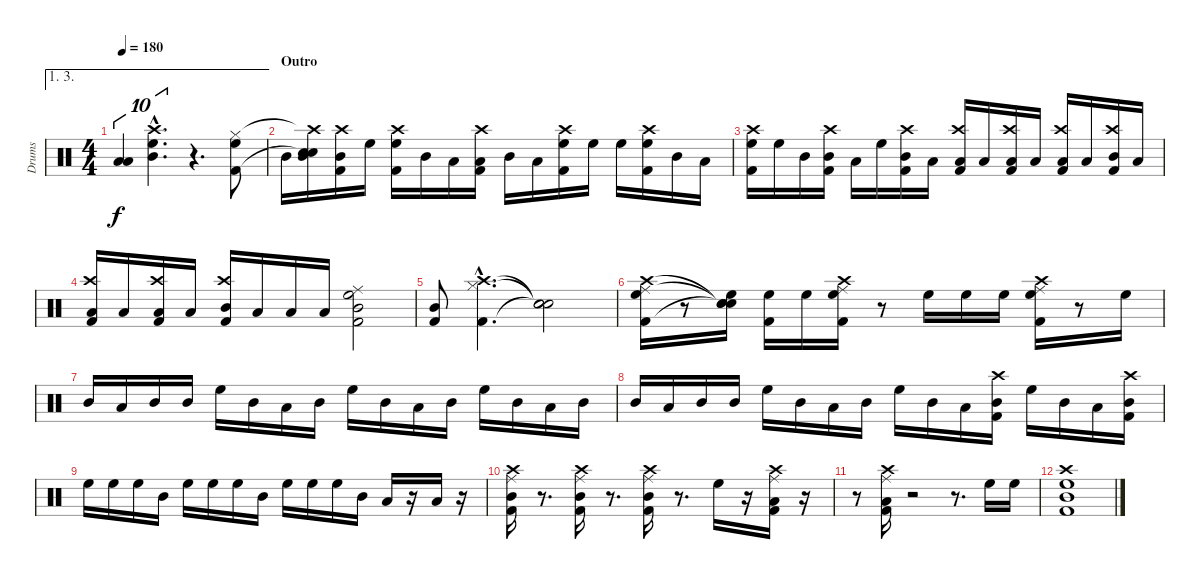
\track ("Drums" "Drums") {instrument percussion}
\staff {score}
\articulation defaults
\ae (1 3)
\ts (4 4)
\tempo 180
\clef neutral
\ks c
("Low Tom (hit)" "Low Floor Tom (hit)").4{tu (10 8) dy f} ("High Floor Tom (hit)"{hac} "Mid Tom (hit)"{hac} "Crash high (hit)"{hac}).4{d tu (10 8)} r.4{d} ("High Floor Tom (hit)" "Hi-Hat (closed)" "Kick (hit) 2").8 |
\section ("" "Outro")
"Mid Tom (hit)".16 ("Mid Tom (hit)" "Crash high (hit)"{t} "Snare (hit)"{t} "Snare (hit)"{t}).16 ("Mid Tom (hit)" "Crash high (hit)" "Kick (hit) 2").16 "High Floor Tom (hit)".16 ("High Floor Tom (hit)" "Crash high (hit)" "Kick (hit) 2").16 "Mid Tom (hit)".16 "Low Tom (hit)".16 ("Low Floor Tom (hit)" "Crash high (hit)" "Kick (hit) 2").16 "Mid Tom (hit)".16 "Low Floor Tom (hit)".16 ("High Floor Tom (hit)" "Crash high (hit)" "Kick (hit) 2").16 "High Floor Tom (hit)".16 "High Floor Tom (hit)".16 ("High Floor Tom (hit)" "Crash high (hit)" "Kick (hit) 2").16 "Mid Tom (hit)".16 "Low Tom (hit)".16 |
("High Floor Tom (hit)" "Crash high (hit)" "Kick (hit) 2").16 "High Floor Tom (hit)".16 "Mid Tom (hit)".16 ("Mid Tom (hit)" "Crash high (hit)" "Kick (hit) 2").16 "Low Tom (hit)".16 "High Floor Tom (hit)".16 ("Mid Tom (hit)" "Crash high (hit)" "Kick (hit) 2").16 "Low Tom (hit)".16 ("Low Floor Tom (hit)" "Crash high (hit)" "Kick (hit) 2").16 "Low Tom (hit)".16 ("Low Floor Tom (hit)" "Crash high (hit)" "Kick (hit) 2").16 "Low Floor Tom (hit)".16 ("Low Floor Tom (hit)" "Crash high (hit)" "Kick (hit) 2").16 "Low Floor Tom (hit)".16 ("Mid Tom (hit)" "Crash high (hit)" "Kick (hit) 2").16 "Low Tom (hit)".16 |
("Low Floor Tom (hit)" "Crash high (hit)" "Kick (hit) 2").16 "Low Floor Tom (hit)".16 ("Low Floor Tom (hit)" "Crash high (hit)" "Kick (hit) 2").16 "Low Floor Tom (hit)".16 ("Mid Tom (hit)" "Crash high (hit)" "Kick (hit) 2").16 "Low Tom (hit)".16 "Low Floor Tom (hit)".16 "Low Floor Tom (hit)".16 ("High Floor Tom (hit)" "Mid Tom (hit)" "Ride (middle)" "Kick (hit) 2").2 |
("Mid Tom (hit)" "Kick (hit) 2").8 ("Crash high (hit)"{hac} "Kick (hit) 2"{hac} "Hi-Hat (closed)"{hac}).4{d} ("Snare (hit)"{t} "Snare (hit)"{t} "Snare (hit)"{t}).2 |
("Ride (middle)" "Crash high (hit)" "High Floor Tom (hit)" "Kick (hit) 2").16 r.8 ("Snare (hit)"{t} "Snare (hit)"{t} "High Floor Tom (hit)" "Snare (hit)"{t}).16 ("High Floor Tom (hit)" "Kick (hit) 2").16 "High Floor Tom (hit)".16 ("Ride (middle)" "Crash high (hit)" "High Floor Tom (hit)" "Kick (hit) 2").16 r.8 "High Floor Tom (hit)".16 "High Floor Tom (hit)".16 "High Floor Tom (hit)".16 ("Ride (middle)" "Crash high (hit)" "High Floor Tom (hit)" "Kick (hit) 2").16 r.8 "High Floor Tom (hit)".16 |
"Mid Tom (hit)".16 "Low Tom (hit)".16 "Mid Tom (hit)".16 "Mid Tom (hit)".16 "High Floor Tom (hit)".16 "Mid Tom (hit)".16 "Low Tom (hit)".16 "Mid Tom (hit)".16 "High Floor Tom (hit)".16 "Mid Tom (hit)".16 "Low Tom (hit)".16 "Mid Tom (hit)".16 "High Floor Tom (hit)".16 "Mid Tom (hit)".16 "Low Tom (hit)".16 "Mid Tom (hit)".16 |
"Mid Tom (hit)".16 "Low Tom (hit)".16 "Mid Tom (hit)".16 "Mid Tom (hit)".16 "High Floor Tom (hit)".16 "Mid Tom (hit)".16 "Low Tom (hit)".16 "Mid Tom (hit)".16 "High Floor Tom (hit)".16 "Mid Tom (hit)".16 "Low Tom (hit)".16 ("Mid Tom (hit)" "Crash high (hit)" "Kick (hit) 2").16 "High Floor Tom (hit)".16 "Mid Tom (hit)".16 "Low Tom (hit)".16 ("Mid Tom (hit)" "Crash high (hit)" "Kick (hit) 2").16 |
"High Floor Tom (hit)".16 "High Floor Tom (hit)".16 "High Floor Tom (hit)".16 "Mid Tom (hit)".16 "High Floor Tom (hit)".16 "High Floor Tom (hit)".16 "High Floor Tom (hit)".16 "Mid Tom (hit)".16 "High Floor Tom (hit)".16 "High Floor Tom (hit)".16 "High Floor Tom (hit)".16 "Mid Tom (hit)".16 "Low Floor Tom (hit)".16 r.16 "Low Floor Tom (hit)".16 r.16 |
("Ride (middle)" "Crash high (hit)" "Mid Tom (hit)" "Kick (hit) 2").16 r.8{d} ("Ride (middle)" "Crash high (hit)" "Mid Tom (hit)" "Kick (hit) 2").16 r.8{d} ("Ride (middle)" "Crash high (hit)" "Mid Tom (hit)" "Kick (hit) 2").16 r.8{d} "High Floor Tom (hit)".16 r.16 ("Ride (middle)" "Crash high (hit)" "Low Tom (hit)" "Kick (hit) 2").16 r.16 |
r.8 ("Ride (middle)" "Crash high (hit)" "Low Tom (hit)" "Kick (hit) 2").16 r.2 r.8{d} "High Floor Tom (hit)".16 "High Floor Tom (hit)".16 |
("High Floor Tom (hit)" "Mid Tom (hit)" "Crash high (hit)" "Kick (hit) 2").1
